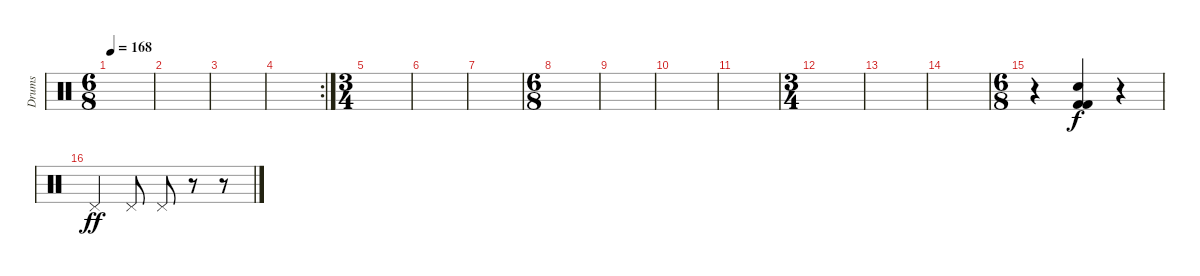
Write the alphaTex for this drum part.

\track ("Drums" "Drums") {instrument percussion}
\staff {score}
\articulation defaults
\ts (6 8)
\tempo 168
\clef neutral
\ks c
|
|
|
\rc 2
|
\ts (3 4)
|
|
|
\ts (6 8)
|
|
|
|
\ts (3 4)
|
|
|
\ts (6 8)
r.4 ("Electric Snare (hit)" "Kick (hit) 2" "Kick (hit) 2").4 r.4 |
"Pedal Hi-Hat (hit)".4{dy ff} "Pedal Hi-Hat (hit)".8 "Pedal Hi-Hat (hit)".8 r.8 r.8
